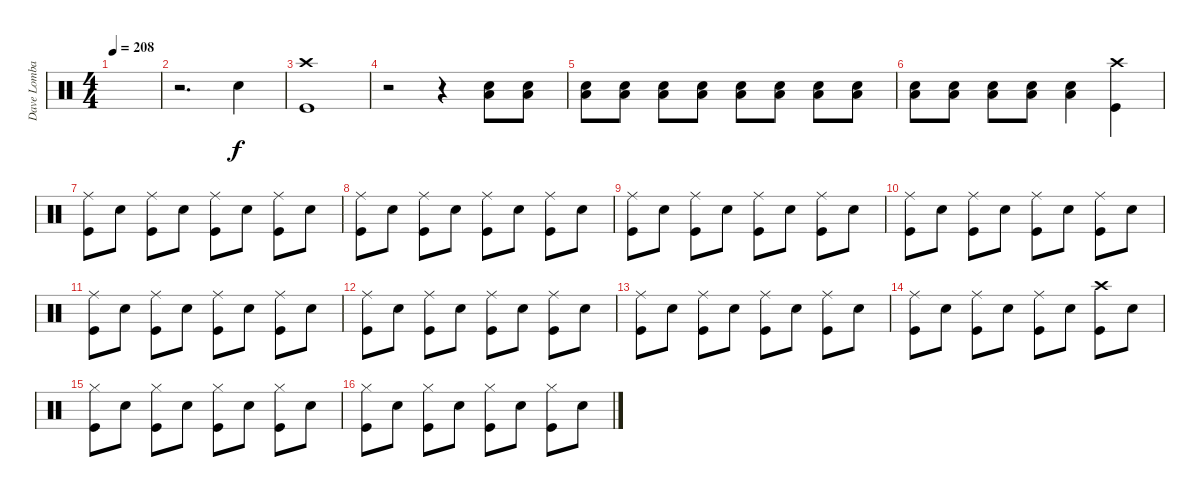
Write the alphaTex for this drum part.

\track ("Dave Lombardo" "Dave Lomba") {instrument percussion}
\staff {score}
\articulation defaults
\ts (4 4)
\tempo 208
\clef neutral
\ks c
|
r.2{d} "Electric Snare (hit)".4 |
("Crash high (hit)" "Kick (hit)").1 |
r.2 r.4 ("Low Tom (hit)" "Electric Snare (hit)").8 ("Low Tom (hit)" "Electric Snare (hit)").8 |
("Low Tom (hit)" "Electric Snare (hit)").8 ("Low Tom (hit)" "Electric Snare (hit)").8 ("Low Tom (hit)" "Electric Snare (hit)").8 ("Low Tom (hit)" "Electric Snare (hit)").8 ("Low Tom (hit)" "Electric Snare (hit)").8 ("Low Tom (hit)" "Electric Snare (hit)").8 ("Low Tom (hit)" "Electric Snare (hit)").8 ("Low Tom (hit)" "Electric Snare (hit)").8 |
("Low Tom (hit)" "Electric Snare (hit)").8 ("Low Tom (hit)" "Electric Snare (hit)").8 ("Low Tom (hit)" "Electric Snare (hit)").8 ("Low Tom (hit)" "Electric Snare (hit)").8 ("Low Tom (hit)" "Electric Snare (hit)").4 ("Crash high (hit)" "Kick (hit)").4 |
("Ride (middle)" "Kick (hit)").8 "Electric Snare (hit)".8 ("Ride (middle)" "Kick (hit)").8 "Electric Snare (hit)".8 ("Ride (middle)" "Kick (hit)").8 "Electric Snare (hit)".8 ("Ride (middle)" "Kick (hit)").8 "Electric Snare (hit)".8 |
("Ride (middle)" "Kick (hit)").8 "Electric Snare (hit)".8 ("Ride (middle)" "Kick (hit)").8 "Electric Snare (hit)".8 ("Ride (middle)" "Kick (hit)").8 "Electric Snare (hit)".8 ("Ride (middle)" "Kick (hit)").8 "Electric Snare (hit)".8 |
("Ride (middle)" "Kick (hit)").8 "Electric Snare (hit)".8 ("Ride (middle)" "Kick (hit)").8 "Electric Snare (hit)".8 ("Ride (middle)" "Kick (hit)").8 "Electric Snare (hit)".8 ("Ride (middle)" "Kick (hit)").8 "Electric Snare (hit)".8 |
("Ride (middle)" "Kick (hit)").8 "Electric Snare (hit)".8 ("Ride (middle)" "Kick (hit)").8 "Electric Snare (hit)".8 ("Ride (middle)" "Kick (hit)").8 "Electric Snare (hit)".8 ("Ride (middle)" "Kick (hit)").8 "Electric Snare (hit)".8 |
("Ride (middle)" "Kick (hit)").8 "Electric Snare (hit)".8 ("Ride (middle)" "Kick (hit)").8 "Electric Snare (hit)".8 ("Ride (middle)" "Kick (hit)").8 "Electric Snare (hit)".8 ("Ride (middle)" "Kick (hit)").8 "Electric Snare (hit)".8 |
("Ride (middle)" "Kick (hit)").8 "Electric Snare (hit)".8 ("Ride (middle)" "Kick (hit)").8 "Electric Snare (hit)".8 ("Ride (middle)" "Kick (hit)").8 "Electric Snare (hit)".8 ("Ride (middle)" "Kick (hit)").8 "Electric Snare (hit)".8 |
("Ride (middle)" "Kick (hit)").8 "Electric Snare (hit)".8 ("Ride (middle)" "Kick (hit)").8 "Electric Snare (hit)".8 ("Ride (middle)" "Kick (hit)").8 "Electric Snare (hit)".8 ("Ride (middle)" "Kick (hit)").8 "Electric Snare (hit)".8 |
("Ride (middle)" "Kick (hit)").8 "Electric Snare (hit)".8 ("Ride (middle)" "Kick (hit)").8 "Electric Snare (hit)".8 ("Ride (middle)" "Kick (hit)").8 "Electric Snare (hit)".8 ("Crash high (hit)" "Kick (hit)").8 "Electric Snare (hit)".8 |
("Hi-Hat (closed)" "Kick (hit)").8 "Electric Snare (hit)".8 ("Hi-Hat (closed)" "Kick (hit)").8 "Electric Snare (hit)".8 ("Hi-Hat (closed)" "Kick (hit)").8 "Electric Snare (hit)".8 ("Hi-Hat (closed)" "Kick (hit)").8 "Electric Snare (hit)".8 |
("Hi-Hat (closed)" "Kick (hit)").8 "Electric Snare (hit)".8 ("Hi-Hat (closed)" "Kick (hit)").8 "Electric Snare (hit)".8 ("Hi-Hat (closed)" "Kick (hit)").8 "Electric Snare (hit)".8 ("Hi-Hat (closed)" "Kick (hit)").8 "Electric Snare (hit)".8
